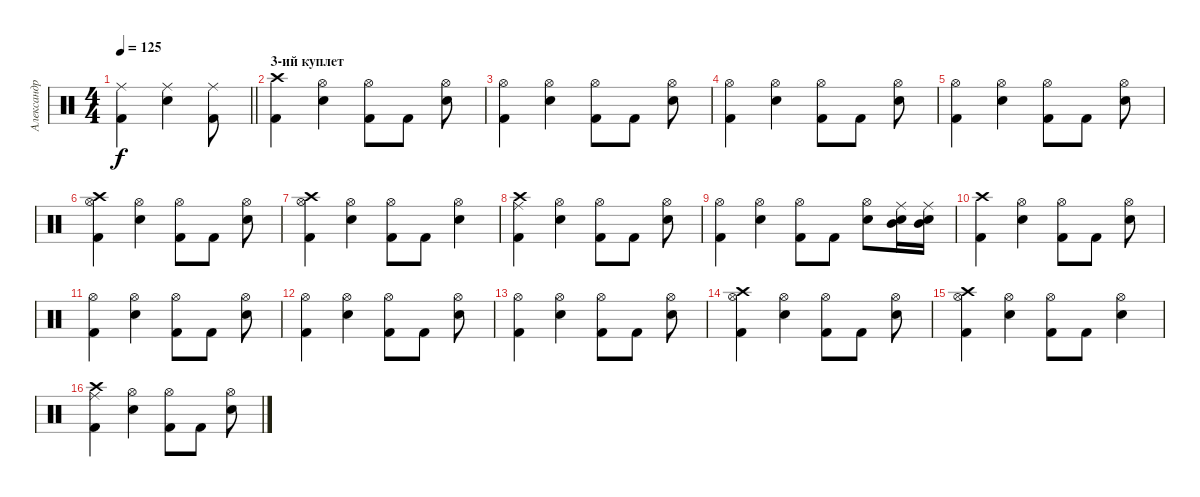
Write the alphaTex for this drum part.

\track ("Александр Манякин" "Александр ") {instrument percussion}
\staff {score}
\articulation defaults
\ts (4 4)
\tempo 125
\clef neutral
\barLineRight lightlight
\ks c
("Ride (middle)" "Kick (hit) 2").4{dy f} ("Ride (middle)" "Snare (hit) 2").4 ("Ride (middle)" "Kick (hit) 2").8 |
\section ("" "3-ий куплет")
("Crash high (hit)" "Kick (hit) 2").4 ("Hi-Hat (open)" "Snare (hit) 2").4 ("Hi-Hat (open)" "Kick (hit) 2").8 "Kick (hit) 2".8 ("Hi-Hat (open)" "Snare (hit) 2").8 |
("Hi-Hat (open)" "Kick (hit) 2").4 ("Hi-Hat (open)" "Snare (hit) 2").4 ("Hi-Hat (open)" "Kick (hit) 2").8 "Kick (hit) 2".8 ("Hi-Hat (open)" "Snare (hit) 2").8 |
("Hi-Hat (open)" "Kick (hit) 2").4 ("Hi-Hat (open)" "Snare (hit) 2").4 ("Hi-Hat (open)" "Kick (hit) 2").8 "Kick (hit) 2".8 ("Hi-Hat (open)" "Snare (hit) 2").8 |
("Hi-Hat (open)" "Kick (hit) 2").4 ("Hi-Hat (open)" "Snare (hit) 2").4 ("Hi-Hat (open)" "Kick (hit) 2").8 "Kick (hit) 2".8 ("Hi-Hat (open)" "Snare (hit) 2").8 |
("Hi-Hat (open)" "Kick (hit) 2" "Crash high (hit)").4 ("Hi-Hat (open)" "Snare (hit) 2").4 ("Hi-Hat (open)" "Kick (hit) 2").8 "Kick (hit) 2".8 ("Hi-Hat (open)" "Snare (hit) 2").8 |
("Hi-Hat (open)" "Kick (hit) 2" "Crash high (hit)").4 ("Hi-Hat (open)" "Snare (hit) 2").4 ("Hi-Hat (open)" "Kick (hit) 2").8 "Kick (hit) 2".8 ("Hi-Hat (open)" "Snare (hit) 2").4 |
("Crash high (hit)" "Kick (hit) 2" "Ride (middle)").4 ("Hi-Hat (open)" "Snare (hit) 2").4 ("Hi-Hat (open)" "Kick (hit) 2").8 "Kick (hit) 2".8 ("Hi-Hat (open)" "Snare (hit) 2").8 |
("Hi-Hat (open)" "Kick (hit) 2").4 ("Hi-Hat (open)" "Snare (hit) 2").4 ("Hi-Hat (open)" "Kick (hit) 2").8 "Kick (hit) 2".8 ("Hi-Hat (open)" "Snare (hit) 2").8 ("Mid Tom (hit)" "Ride (middle)" "Snare (hit) 2").16 ("Mid Tom (hit)" "Ride (middle)" "Snare (hit) 2").16 |
("Crash high (hit)" "Kick (hit) 2").4 ("Hi-Hat (open)" "Snare (hit) 2").4 ("Hi-Hat (open)" "Kick (hit) 2").8 "Kick (hit) 2".8 ("Hi-Hat (open)" "Snare (hit) 2").8 |
("Hi-Hat (open)" "Kick (hit) 2").4 ("Hi-Hat (open)" "Snare (hit) 2").4 ("Hi-Hat (open)" "Kick (hit) 2").8 "Kick (hit) 2".8 ("Hi-Hat (open)" "Snare (hit) 2").8 |
("Hi-Hat (open)" "Kick (hit) 2").4 ("Hi-Hat (open)" "Snare (hit) 2").4 ("Hi-Hat (open)" "Kick (hit) 2").8 "Kick (hit) 2".8 ("Hi-Hat (open)" "Snare (hit) 2").8 |
("Hi-Hat (open)" "Kick (hit) 2").4 ("Hi-Hat (open)" "Snare (hit) 2").4 ("Hi-Hat (open)" "Kick (hit) 2").8 "Kick (hit) 2".8 ("Hi-Hat (open)" "Snare (hit) 2").8 |
("Hi-Hat (open)" "Kick (hit) 2" "Crash high (hit)").4 ("Hi-Hat (open)" "Snare (hit) 2").4 ("Hi-Hat (open)" "Kick (hit) 2").8 "Kick (hit) 2".8 ("Hi-Hat (open)" "Snare (hit) 2").8 |
("Hi-Hat (open)" "Kick (hit) 2" "Crash high (hit)").4 ("Hi-Hat (open)" "Snare (hit) 2").4 ("Hi-Hat (open)" "Kick (hit) 2").8 "Kick (hit) 2".8 ("Hi-Hat (open)" "Snare (hit) 2").4 |
("Crash high (hit)" "Kick (hit) 2" "Ride (middle)").4 ("Hi-Hat (open)" "Snare (hit) 2").4 ("Hi-Hat (open)" "Kick (hit) 2").8 "Kick (hit) 2".8 ("Hi-Hat (open)" "Snare (hit) 2").8
